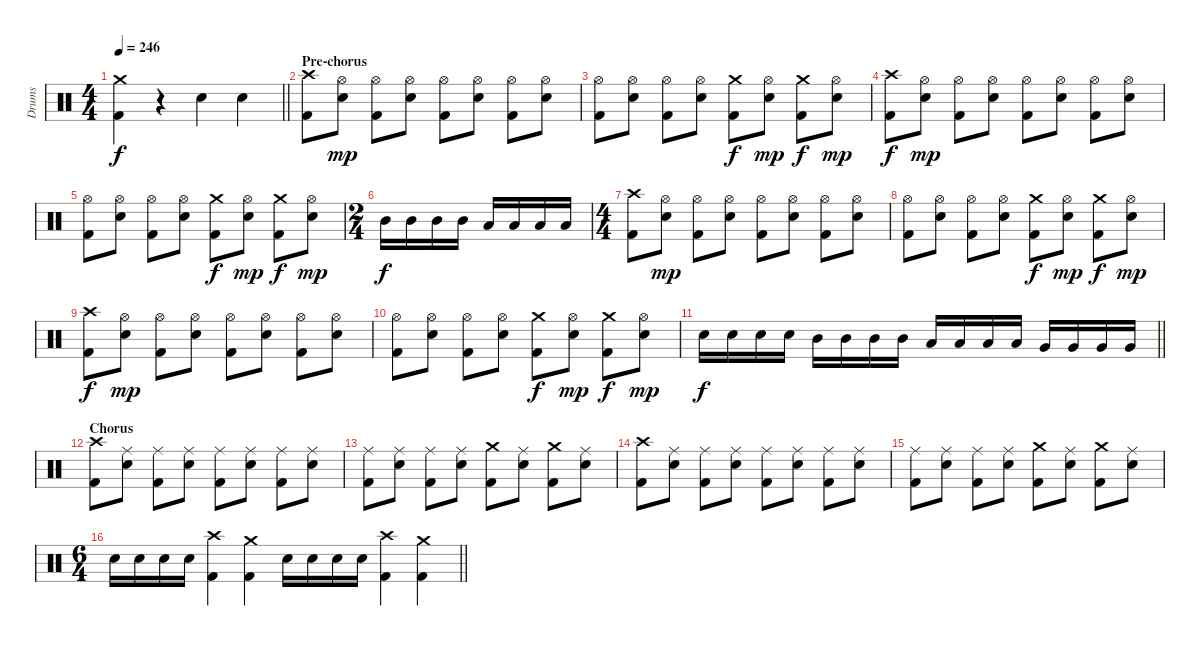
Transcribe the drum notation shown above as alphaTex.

\track ("Drums" "Drums") {instrument percussion}
\staff {score}
\articulation defaults
\ts (4 4)
\section ("" "")
\tempo 246
\clef neutral
\barLineRight lightlight
\ks c
("Crash medium (hit)" "Kick (hit) 2").4{dy f} r.4 "Snare (hit) 2".4 "Snare (hit) 2".4 |
\section ("" "Pre-chorus")
("Crash high (hit)" "Kick (hit) 2").8 ("Hi-Hat (open)" "Snare (hit) 2").8{dy mp} ("Hi-Hat (open)" "Kick (hit) 2").8 ("Hi-Hat (open)" "Snare (hit) 2").8 ("Hi-Hat (open)" "Kick (hit) 2").8 ("Hi-Hat (open)" "Snare (hit) 2").8 ("Hi-Hat (open)" "Kick (hit) 2").8 ("Hi-Hat (open)" "Snare (hit) 2").8 |
("Hi-Hat (open)" "Kick (hit) 2").8 ("Hi-Hat (open)" "Snare (hit) 2").8 ("Hi-Hat (open)" "Kick (hit) 2").8 ("Hi-Hat (open)" "Snare (hit) 2").8 ("Crash medium (hit)" "Kick (hit) 2").8{dy f} ("Hi-Hat (open)" "Snare (hit) 2").8{dy mp} ("Crash medium (hit)" "Kick (hit) 2").8{dy f} ("Hi-Hat (open)" "Snare (hit) 2").8{dy mp} |
("Crash high (hit)" "Kick (hit) 2").8{dy f} ("Hi-Hat (open)" "Snare (hit) 2").8{dy mp} ("Hi-Hat (open)" "Kick (hit) 2").8 ("Hi-Hat (open)" "Snare (hit) 2").8 ("Hi-Hat (open)" "Kick (hit) 2").8 ("Hi-Hat (open)" "Snare (hit) 2").8 ("Hi-Hat (open)" "Kick (hit) 2").8 ("Hi-Hat (open)" "Snare (hit) 2").8 |
("Hi-Hat (open)" "Kick (hit) 2").8 ("Hi-Hat (open)" "Snare (hit) 2").8 ("Hi-Hat (open)" "Kick (hit) 2").8 ("Hi-Hat (open)" "Snare (hit) 2").8 ("Crash medium (hit)" "Kick (hit) 2").8{dy f} ("Hi-Hat (open)" "Snare (hit) 2").8{dy mp} ("Crash medium (hit)" "Kick (hit) 2").8{dy f} ("Hi-Hat (open)" "Snare (hit) 2").8{dy mp} |
\ts (2 4)
"Mid Tom (hit)".16{dy f} "Mid Tom (hit)".16 "Mid Tom (hit)".16 "Mid Tom (hit)".16 "Low Tom (hit)".16 "Low Tom (hit)".16 "Low Tom (hit)".16 "Low Tom (hit)".16 |
\ts (4 4)
("Crash high (hit)" "Kick (hit) 2").8 ("Hi-Hat (open)" "Snare (hit) 2").8{dy mp} ("Hi-Hat (open)" "Kick (hit) 2").8 ("Hi-Hat (open)" "Snare (hit) 2").8 ("Hi-Hat (open)" "Kick (hit) 2").8 ("Hi-Hat (open)" "Snare (hit) 2").8 ("Hi-Hat (open)" "Kick (hit) 2").8 ("Hi-Hat (open)" "Snare (hit) 2").8 |
("Hi-Hat (open)" "Kick (hit) 2").8 ("Hi-Hat (open)" "Snare (hit) 2").8 ("Hi-Hat (open)" "Kick (hit) 2").8 ("Hi-Hat (open)" "Snare (hit) 2").8 ("Crash medium (hit)" "Kick (hit) 2").8{dy f} ("Hi-Hat (open)" "Snare (hit) 2").8{dy mp} ("Crash medium (hit)" "Kick (hit) 2").8{dy f} ("Hi-Hat (open)" "Snare (hit) 2").8{dy mp} |
("Crash high (hit)" "Kick (hit) 2").8{dy f} ("Hi-Hat (open)" "Snare (hit) 2").8{dy mp} ("Hi-Hat (open)" "Kick (hit) 2").8 ("Hi-Hat (open)" "Snare (hit) 2").8 ("Hi-Hat (open)" "Kick (hit) 2").8 ("Hi-Hat (open)" "Snare (hit) 2").8 ("Hi-Hat (open)" "Kick (hit) 2").8 ("Hi-Hat (open)" "Snare (hit) 2").8 |
("Hi-Hat (open)" "Kick (hit) 2").8 ("Hi-Hat (open)" "Snare (hit) 2").8 ("Hi-Hat (open)" "Kick (hit) 2").8 ("Hi-Hat (open)" "Snare (hit) 2").8 ("Crash medium (hit)" "Kick (hit) 2").8{dy f} ("Hi-Hat (open)" "Snare (hit) 2").8{dy mp} ("Crash medium (hit)" "Kick (hit) 2").8{dy f} ("Hi-Hat (open)" "Snare (hit) 2").8{dy mp} |
\barLineRight lightlight "Snare (hit) 2".16{dy f} "Snare (hit) 2".16 "Snare (hit) 2".16 "Snare (hit) 2".16 "Mid Tom (hit)".16 "Mid Tom (hit)".16 "Mid Tom (hit)".16 "Mid Tom (hit)".16 "Low Tom (hit)".16 "Low Tom (hit)".16 "Low Tom (hit)".16 "Low Tom (hit)".16 "Very Low Tom (hit)".16 "Very Low Tom (hit)".16 "Very Low Tom (hit)".16 "Very Low Tom (hit)".16
|
\section ("" "Chorus")
("Crash high (hit)" "Kick (hit) 2").8 ("Ride (middle)" "Snare (hit) 2").8 ("Ride (middle)" "Kick (hit) 2").8 ("Ride (middle)" "Snare (hit) 2").8 ("Ride (middle)" "Kick (hit) 2").8 ("Ride (middle)" "Snare (hit) 2").8 ("Ride (middle)" "Kick (hit) 2").8 ("Ride (middle)" "Snare (hit) 2").8 |
("Ride (middle)" "Kick (hit) 2").8 ("Ride (middle)" "Snare (hit) 2").8 ("Ride (middle)" "Kick (hit) 2").8 ("Ride (middle)" "Snare (hit) 2").8 ("Crash medium (hit)" "Kick (hit) 2").8 ("Ride (middle)" "Snare (hit) 2").8 ("Crash medium (hit)" "Kick (hit) 2").8 ("Ride (middle)" "Snare (hit) 2").8 |
("Crash high (hit)" "Kick (hit) 2").8 ("Ride (middle)" "Snare (hit) 2").8 ("Ride (middle)" "Kick (hit) 2").8 ("Ride (middle)" "Snare (hit) 2").8 ("Ride (middle)" "Kick (hit) 2").8 ("Ride (middle)" "Snare (hit) 2").8 ("Ride (middle)" "Kick (hit) 2").8 ("Ride (middle)" "Snare (hit) 2").8 |
("Ride (middle)" "Kick (hit) 2").8 ("Ride (middle)" "Snare (hit) 2").8 ("Ride (middle)" "Kick (hit) 2").8 ("Ride (middle)" "Snare (hit) 2").8 ("Crash medium (hit)" "Kick (hit) 2").8 ("Ride (middle)" "Snare (hit) 2").8 ("Crash medium (hit)" "Kick (hit) 2").8 ("Ride (middle)" "Snare (hit) 2").8 |
\ts (6 4)
\barLineRight lightlight "Snare (hit) 2".16 "Snare (hit) 2".16 "Snare (hit) 2".16 "Snare (hit) 2".16
("Crash high (hit)" "Kick (hit) 2").4 ("Crash medium (hit)" "Kick (hit) 2").4 "Snare (hit) 2".16 "Snare (hit) 2".16 "Snare (hit) 2".16 "Snare (hit) 2".16 ("Crash high (hit)" "Kick (hit) 2").4 ("Crash medium (hit)" "Kick (hit) 2").4
